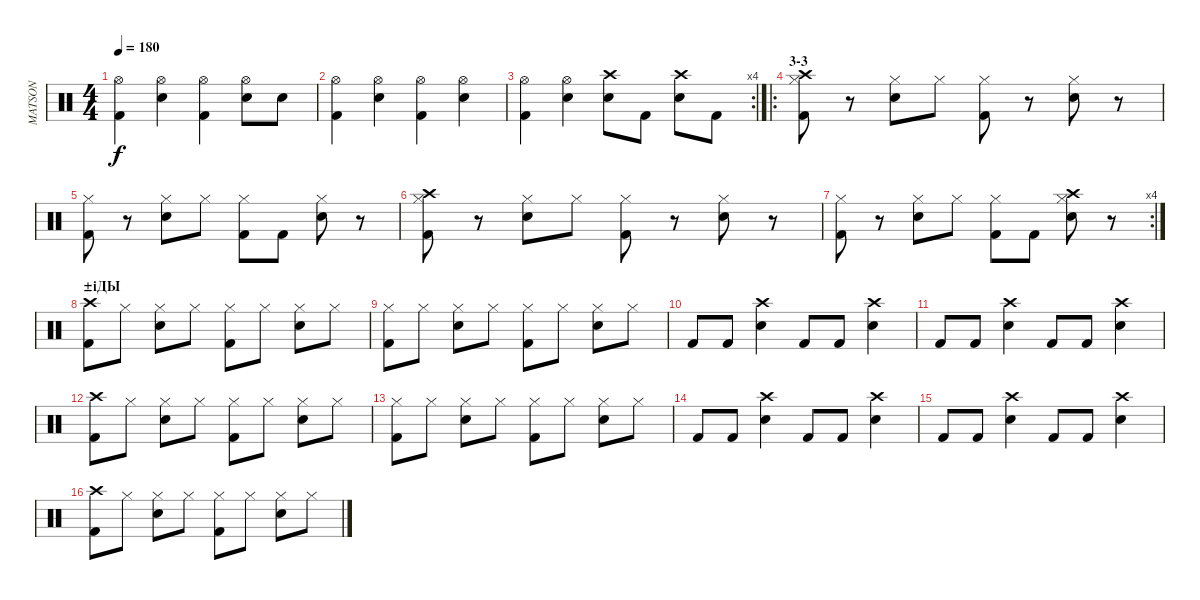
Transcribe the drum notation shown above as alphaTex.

\track ("MATSON" "MATSON") {instrument percussion}
\staff {score}
\articulation defaults
\ts (4 4)
\tempo 180
\clef neutral
\ks c
("Hi-Hat (open)" "Kick (hit) 2").4{dy f} ("Hi-Hat (open)" "Snare (hit) 2").4 ("Hi-Hat (open)" "Kick (hit) 2").4 ("Hi-Hat (open)" "Snare (hit) 2").8 "Snare (hit) 2".8 |
("Hi-Hat (open)" "Kick (hit) 2").4 ("Hi-Hat (open)" "Snare (hit) 2").4 ("Hi-Hat (open)" "Kick (hit) 2").4 ("Hi-Hat (open)" "Snare (hit) 2").4 |
\rc 4
("Hi-Hat (open)" "Kick (hit) 2").4 ("Hi-Hat (open)" "Snare (hit) 2").4 ("Crash high (hit)" "Snare (hit) 2").8 "Kick (hit) 2".8 ("Crash high (hit)" "Snare (hit) 2").8 "Kick (hit) 2".8 |
\ro
\section ("" "3-3")
("Hi-Hat (closed)" "Crash high (hit)" "Kick (hit) 2").8 r.8 ("Hi-Hat (closed)" "Snare (hit) 2").8 "Hi-Hat (closed)".8 ("Hi-Hat (closed)" "Kick (hit) 2").8 r.8 ("Hi-Hat (closed)" "Snare (hit) 2").8 r.8 |
("Hi-Hat (closed)" "Kick (hit) 2").8 r.8 ("Hi-Hat (closed)" "Snare (hit) 2").8 "Hi-Hat (closed)".8 ("Hi-Hat (closed)" "Kick (hit) 2").8 "Kick (hit) 2".8 ("Hi-Hat (closed)" "Snare (hit) 2").8 r.8 |
("Hi-Hat (closed)" "Crash high (hit)" "Kick (hit) 2").8 r.8 ("Hi-Hat (closed)" "Snare (hit) 2").8 "Hi-Hat (closed)".8 ("Hi-Hat (closed)" "Kick (hit) 2").8 r.8 ("Hi-Hat (closed)" "Snare (hit) 2").8 r.8 |
\rc 4
("Hi-Hat (closed)" "Kick (hit) 2").8 r.8 ("Hi-Hat (closed)" "Snare (hit) 2").8 "Hi-Hat (closed)".8 ("Hi-Hat (closed)" "Kick (hit) 2").8 "Kick (hit) 2".8 ("Hi-Hat (closed)" "Crash high (hit)" "Snare (hit) 2").8 r.8 |
\section ("" "±іДЫ")
("Crash high (hit)" "Kick (hit) 2").8 "Hi-Hat (closed)".8 ("Hi-Hat (closed)" "Snare (hit) 2").8 "Hi-Hat (closed)".8 ("Hi-Hat (closed)" "Kick (hit) 2").8 "Hi-Hat (closed)".8 ("Hi-Hat (closed)" "Snare (hit) 2").8 "Hi-Hat (closed)".8 |
("Hi-Hat (closed)" "Kick (hit) 2").8 "Hi-Hat (closed)".8 ("Hi-Hat (closed)" "Snare (hit) 2").8 "Hi-Hat (closed)".8 ("Hi-Hat (closed)" "Kick (hit) 2").8 "Hi-Hat (closed)".8 ("Hi-Hat (closed)" "Snare (hit) 2").8 "Hi-Hat (closed)".8 |
"Kick (hit) 2".8 "Kick (hit) 2".8 ("Crash high (hit)" "Snare (hit) 2").4 "Kick (hit) 2".8 "Kick (hit) 2".8 ("Crash high (hit)" "Snare (hit) 2").4 |
"Kick (hit) 2".8 "Kick (hit) 2".8 ("Crash high (hit)" "Snare (hit) 2").4 "Kick (hit) 2".8 "Kick (hit) 2".8 ("Crash high (hit)" "Snare (hit) 2").4 |
("Crash high (hit)" "Kick (hit) 2").8 "Hi-Hat (closed)".8 ("Hi-Hat (closed)" "Snare (hit) 2").8 "Hi-Hat (closed)".8 ("Hi-Hat (closed)" "Kick (hit) 2").8 "Hi-Hat (closed)".8 ("Hi-Hat (closed)" "Snare (hit) 2").8 "Hi-Hat (closed)".8 |
("Hi-Hat (closed)" "Kick (hit) 2").8 "Hi-Hat (closed)".8 ("Hi-Hat (closed)" "Snare (hit) 2").8 "Hi-Hat (closed)".8 ("Hi-Hat (closed)" "Kick (hit) 2").8 "Hi-Hat (closed)".8 ("Hi-Hat (closed)" "Snare (hit) 2").8 "Hi-Hat (closed)".8 |
"Kick (hit) 2".8 "Kick (hit) 2".8 ("Crash high (hit)" "Snare (hit) 2").4 "Kick (hit) 2".8 "Kick (hit) 2".8 ("Crash high (hit)" "Snare (hit) 2").4 |
"Kick (hit) 2".8 "Kick (hit) 2".8 ("Crash high (hit)" "Snare (hit) 2").4 "Kick (hit) 2".8 "Kick (hit) 2".8 ("Crash high (hit)" "Snare (hit) 2").4 |
("Crash high (hit)" "Kick (hit) 2").8 "Hi-Hat (closed)".8 ("Hi-Hat (closed)" "Snare (hit) 2").8 "Hi-Hat (closed)".8 ("Hi-Hat (closed)" "Kick (hit) 2").8 "Hi-Hat (closed)".8 ("Hi-Hat (closed)" "Snare (hit) 2").8 "Hi-Hat (closed)".8
